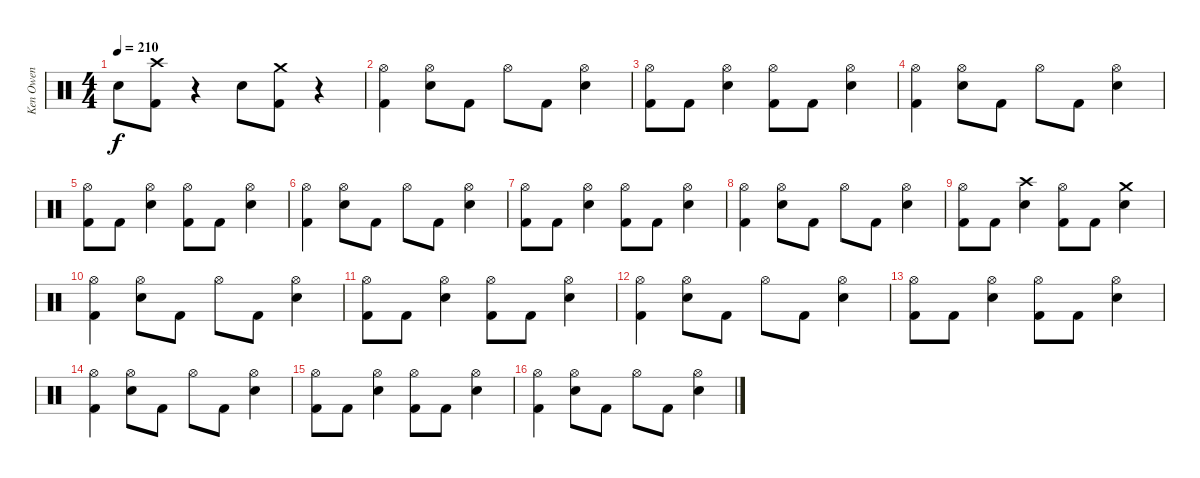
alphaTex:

\track ("Ken Owen" "Ken Owen") {instrument percussion}
\staff {score}
\articulation defaults
\ts (4 4)
\tempo 210
\clef neutral
\ks c "Snare (hit) 2".8{dy f}
("Crash high (hit)" "Kick (hit) 2").8 r.4 "Snare (hit) 2".8 ("Crash medium (hit)" "Kick (hit) 2").8 r.4 |
("Hi-Hat (open)" "Kick (hit) 2").4 ("Hi-Hat (open)" "Snare (hit) 2").8 "Kick (hit) 2".8 "Hi-Hat (open)".8 "Kick (hit) 2".8 ("Hi-Hat (open)" "Snare (hit) 2").4 |
("Hi-Hat (open)" "Kick (hit) 2").8 "Kick (hit) 2".8 ("Hi-Hat (open)" "Snare (hit) 2").4 ("Hi-Hat (open)" "Kick (hit) 2").8 "Kick (hit) 2".8 ("Hi-Hat (open)" "Snare (hit) 2").4 |
("Hi-Hat (open)" "Kick (hit) 2").4 ("Hi-Hat (open)" "Snare (hit) 2").8 "Kick (hit) 2".8 "Hi-Hat (open)".8 "Kick (hit) 2".8 ("Hi-Hat (open)" "Snare (hit) 2").4 |
("Hi-Hat (open)" "Kick (hit) 2").8 "Kick (hit) 2".8 ("Hi-Hat (open)" "Snare (hit) 2").4 ("Hi-Hat (open)" "Kick (hit) 2").8 "Kick (hit) 2".8 ("Hi-Hat (open)" "Snare (hit) 2").4 |
("Hi-Hat (open)" "Kick (hit) 2").4 ("Hi-Hat (open)" "Snare (hit) 2").8 "Kick (hit) 2".8 "Hi-Hat (open)".8 "Kick (hit) 2".8 ("Hi-Hat (open)" "Snare (hit) 2").4 |
("Hi-Hat (open)" "Kick (hit) 2").8 "Kick (hit) 2".8 ("Hi-Hat (open)" "Snare (hit) 2").4 ("Hi-Hat (open)" "Kick (hit) 2").8 "Kick (hit) 2".8 ("Hi-Hat (open)" "Snare (hit) 2").4 |
("Hi-Hat (open)" "Kick (hit) 2").4 ("Hi-Hat (open)" "Snare (hit) 2").8 "Kick (hit) 2".8 "Hi-Hat (open)".8 "Kick (hit) 2".8 ("Hi-Hat (open)" "Snare (hit) 2").4 |
("Hi-Hat (open)" "Kick (hit) 2").8 "Kick (hit) 2".8 ("Crash high (hit)" "Snare (hit) 2").4 ("Hi-Hat (open)" "Kick (hit) 2").8 "Kick (hit) 2".8 ("Crash medium (hit)" "Snare (hit) 2").4 |
("Hi-Hat (open)" "Kick (hit) 2").4 ("Hi-Hat (open)" "Snare (hit) 2").8 "Kick (hit) 2".8 "Hi-Hat (open)".8 "Kick (hit) 2".8 ("Hi-Hat (open)" "Snare (hit) 2").4 |
("Hi-Hat (open)" "Kick (hit) 2").8 "Kick (hit) 2".8 ("Hi-Hat (open)" "Snare (hit) 2").4 ("Hi-Hat (open)" "Kick (hit) 2").8 "Kick (hit) 2".8 ("Hi-Hat (open)" "Snare (hit) 2").4 |
("Hi-Hat (open)" "Kick (hit) 2").4 ("Hi-Hat (open)" "Snare (hit) 2").8 "Kick (hit) 2".8 "Hi-Hat (open)".8 "Kick (hit) 2".8 ("Hi-Hat (open)" "Snare (hit) 2").4 |
("Hi-Hat (open)" "Kick (hit) 2").8 "Kick (hit) 2".8 ("Hi-Hat (open)" "Snare (hit) 2").4 ("Hi-Hat (open)" "Kick (hit) 2").8 "Kick (hit) 2".8 ("Hi-Hat (open)" "Snare (hit) 2").4 |
("Hi-Hat (open)" "Kick (hit) 2").4 ("Hi-Hat (open)" "Snare (hit) 2").8 "Kick (hit) 2".8 "Hi-Hat (open)".8 "Kick (hit) 2".8 ("Hi-Hat (open)" "Snare (hit) 2").4 |
("Hi-Hat (open)" "Kick (hit) 2").8 "Kick (hit) 2".8 ("Hi-Hat (open)" "Snare (hit) 2").4 ("Hi-Hat (open)" "Kick (hit) 2").8 "Kick (hit) 2".8 ("Hi-Hat (open)" "Snare (hit) 2").4 |
("Hi-Hat (open)" "Kick (hit) 2").4 ("Hi-Hat (open)" "Snare (hit) 2").8 "Kick (hit) 2".8 "Hi-Hat (open)".8 "Kick (hit) 2".8 ("Hi-Hat (open)" "Snare (hit) 2").4
